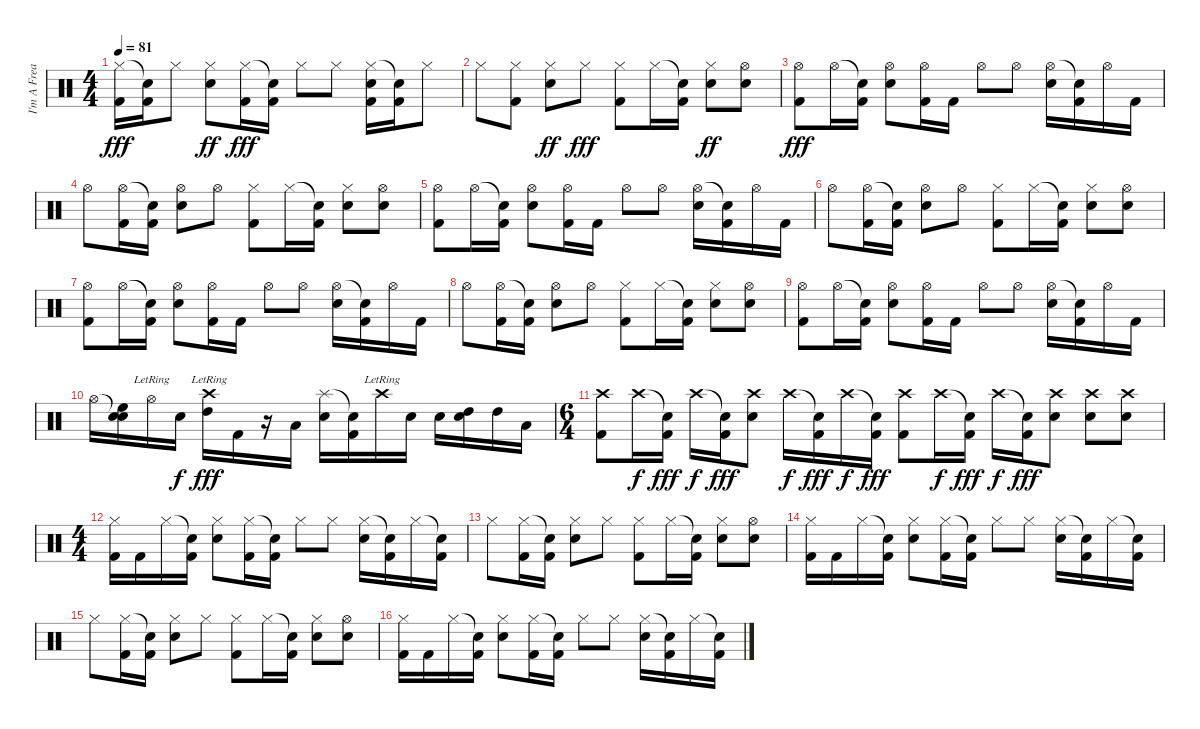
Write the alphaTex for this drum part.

\track ("I'm A Freak" "I'm A Frea") {instrument percussion}
\staff {score}
\articulation defaults
\ts (4 4)
\tempo 81
\clef neutral
\ks c
("Hi-Hat (closed)" "Kick (hit) 2").16{dy fff} ("Snare (hit)"{t} "Kick (hit) 2").16 "Hi-Hat (closed)".8 ("Hi-Hat (closed)" "Snare (hit) 2").8{dy ff} ("Hi-Hat (closed)" "Kick (hit) 2").16{dy fff} ("Snare (hit)"{t} "Kick (hit) 2").16 "Hi-Hat (closed)".8 "Hi-Hat (closed)".8 ("Hi-Hat (closed)" "Snare (hit) 2" "Kick (hit) 2").16 ("Snare (hit)"{t} "Kick (hit) 2").16 "Hi-Hat (closed)".8 |
"Hi-Hat (closed)".8 ("Hi-Hat (closed)" "Kick (hit) 2").8 ("Hi-Hat (closed)" "Snare (hit) 2").8{dy ff} "Hi-Hat (closed)".8{dy fff} ("Hi-Hat (closed)" "Kick (hit) 2").8 "Hi-Hat (closed)".16 ("Snare (hit)"{t} "Kick (hit) 2").16 ("Hi-Hat (closed)" "Snare (hit) 2").8{dy ff} ("Hi-Hat (open)" "Snare (hit) 2").8 |
("Hi-Hat (open)" "Kick (hit) 2").8{dy fff} "Hi-Hat (open)".16 ("Snare (hit)"{t} "Kick (hit) 2").16 ("Hi-Hat (open)" "Snare (hit) 2").8 ("Hi-Hat (open)" "Kick (hit) 2").16 "Kick (hit) 2".16 "Hi-Hat (open)".8 "Hi-Hat (open)".8 ("Hi-Hat (open)" "Snare (hit) 2").16 ("Snare (hit)"{t} "Kick (hit) 2").16 "Hi-Hat (open)".16 "Kick (hit) 2".16 |
"Hi-Hat (open)".8 ("Hi-Hat (open)" "Kick (hit) 2").16 ("Snare (hit)"{t} "Kick (hit) 2").16 ("Hi-Hat (open)" "Snare (hit) 2").8 "Hi-Hat (open)".8 ("Hi-Hat (closed)" "Kick (hit) 2").8 "Hi-Hat (closed)".16 ("Snare (hit)"{t} "Kick (hit) 2").16 ("Hi-Hat (closed)" "Snare (hit) 2").8 ("Hi-Hat (open)" "Snare (hit) 2").8 |
("Hi-Hat (open)" "Kick (hit) 2").8 "Hi-Hat (open)".16 ("Snare (hit)"{t} "Kick (hit) 2").16 ("Hi-Hat (open)" "Snare (hit) 2").8 ("Hi-Hat (open)" "Kick (hit) 2").16 "Kick (hit) 2".16 "Hi-Hat (open)".8 "Hi-Hat (open)".8 ("Hi-Hat (open)" "Snare (hit) 2").16 ("Snare (hit)"{t} "Kick (hit) 2").16 "Hi-Hat (open)".16 "Kick (hit) 2".16 |
"Hi-Hat (open)".8 ("Hi-Hat (open)" "Kick (hit) 2").16 ("Snare (hit)"{t} "Kick (hit) 2").16 ("Hi-Hat (open)" "Snare (hit) 2").8 "Hi-Hat (open)".8 ("Hi-Hat (closed)" "Kick (hit) 2").8 "Hi-Hat (closed)".16 ("Snare (hit)"{t} "Kick (hit) 2").16 ("Hi-Hat (closed)" "Snare (hit) 2").8 ("Hi-Hat (open)" "Snare (hit) 2").8 |
("Hi-Hat (open)" "Kick (hit) 2").8 "Hi-Hat (open)".16 ("Snare (hit)"{t} "Kick (hit) 2").16 ("Hi-Hat (open)" "Snare (hit) 2").8 ("Hi-Hat (open)" "Kick (hit) 2").16 "Kick (hit) 2".16 "Hi-Hat (open)".8 "Hi-Hat (open)".8 ("Hi-Hat (open)" "Snare (hit) 2").16 ("Snare (hit)"{t} "Kick (hit) 2").16 "Hi-Hat (open)".16 "Kick (hit) 2".16 |
"Hi-Hat (open)".8 ("Hi-Hat (open)" "Kick (hit) 2").16 ("Snare (hit)"{t} "Kick (hit) 2").16 ("Hi-Hat (open)" "Snare (hit) 2").8 "Hi-Hat (open)".8 ("Hi-Hat (closed)" "Kick (hit) 2").8 "Hi-Hat (closed)".16 ("Snare (hit)"{t} "Kick (hit) 2").16 ("Hi-Hat (closed)" "Snare (hit) 2").8 ("Hi-Hat (open)" "Snare (hit) 2").8 |
("Hi-Hat (open)" "Kick (hit) 2").8 "Hi-Hat (open)".16 ("Snare (hit)"{t} "Kick (hit) 2").16 ("Hi-Hat (open)" "Snare (hit) 2").8 ("Hi-Hat (open)" "Kick (hit) 2").16 "Kick (hit) 2".16 "Hi-Hat (open)".8 "Hi-Hat (open)".8 ("Hi-Hat (open)" "Snare (hit) 2").16 ("Snare (hit)"{t} "Kick (hit) 2").16 "Hi-Hat (open)".16 "Kick (hit) 2".16 |
"Hi-Hat (open)".16 ("Snare (hit)"{t} "Snare (hit) 2" "High Floor Tom (hit)").16 "Hi-Hat (open)"{lr}.16 "Snare (hit) 2".16{dy f} ("Crash high (hit)"{lr} "High Tom (hit)").16{dy fff} "Kick (hit) 2".16 r.16 "Low Tom (hit)".16 ("Splash (hit)" "Snare (hit) 2").16 ("Snare (hit)"{t} "Kick (hit) 2").16 "Crash high (hit)"{lr}.16 "Snare (hit) 2".16 "Snare (hit) 2".16 ("Snare (hit) 2" "High Tom (hit)").16 "High Tom (hit)".16 "Low Tom (hit)".16 |
\ts (6 4)
("Crash high (hit)" "Kick (hit) 2").8 "Crash high (hit)".16{dy f} ("Snare (hit)"{t} "Kick (hit) 2").16{dy fff} "Crash high (hit)".16{dy f} ("Snare (hit)"{t} "Kick (hit) 2").16{dy fff} ("Crash high (hit)" "Snare (hit) 2").8 "Crash high (hit)".16{dy f} ("Snare (hit)"{t} "Kick (hit) 2").16{dy fff} "Crash high (hit)".16{dy f} ("Snare (hit)"{t} "Kick (hit) 2").16{dy fff} ("Crash high (hit)" "Kick (hit) 2").8 "Crash high (hit)".16{dy f} ("Snare (hit)"{t} "Kick (hit) 2").16{dy fff} "Crash high (hit)".16{dy f} ("Snare (hit)"{t} "Kick (hit) 2").16{dy fff} ("Crash high (hit)" "Snare (hit) 2").8 ("Crash high (hit)" "Snare (hit) 2").8 ("Crash high (hit)" "Snare (hit) 2").8 |
\ts (4 4)
("Hi-Hat (closed)" "Kick (hit) 2").16 "Kick (hit) 2".16 "Hi-Hat (closed)".16 ("Snare (hit)"{t} "Kick (hit) 2").16 ("Hi-Hat (closed)" "Snare (hit) 2").8 ("Hi-Hat (closed)" "Kick (hit) 2").16 ("Snare (hit)"{t} "Kick (hit) 2").16 "Hi-Hat (closed)".8 "Hi-Hat (closed)".8 ("Hi-Hat (closed)" "Snare (hit) 2").16 ("Snare (hit)"{t} "Kick (hit) 2").16 "Hi-Hat (closed)".16 ("Snare (hit)"{t} "Kick (hit) 2").16 |
"Hi-Hat (closed)".8 ("Hi-Hat (closed)" "Kick (hit) 2").16 ("Snare (hit)"{t} "Kick (hit) 2").16 ("Hi-Hat (closed)" "Snare (hit) 2").8 "Hi-Hat (closed)".8 ("Hi-Hat (closed)" "Kick (hit) 2").8 "Hi-Hat (closed)".16 ("Snare (hit)"{t} "Kick (hit) 2").16 ("Hi-Hat (closed)" "Snare (hit) 2").8 ("Hi-Hat (open)" "Snare (hit) 2").8 |
("Hi-Hat (closed)" "Kick (hit) 2").16 "Kick (hit) 2".16 "Hi-Hat (closed)".16 ("Snare (hit)"{t} "Kick (hit) 2").16 ("Hi-Hat (closed)" "Snare (hit) 2").8 ("Hi-Hat (closed)" "Kick (hit) 2").16 ("Snare (hit)"{t} "Kick (hit) 2").16 "Hi-Hat (closed)".8 "Hi-Hat (closed)".8 ("Hi-Hat (closed)" "Snare (hit) 2").16 ("Snare (hit)"{t} "Kick (hit) 2").16 "Hi-Hat (closed)".16 ("Snare (hit)"{t} "Kick (hit) 2").16 |
"Hi-Hat (closed)".8 ("Hi-Hat (closed)" "Kick (hit) 2").16 ("Snare (hit)"{t} "Kick (hit) 2").16 ("Hi-Hat (closed)" "Snare (hit) 2").8 "Hi-Hat (closed)".8 ("Hi-Hat (closed)" "Kick (hit) 2").8 "Hi-Hat (closed)".16 ("Snare (hit)"{t} "Kick (hit) 2").16 ("Hi-Hat (closed)" "Snare (hit) 2").8 ("Hi-Hat (open)" "Snare (hit) 2").8 |
("Hi-Hat (closed)" "Kick (hit) 2").16 "Kick (hit) 2".16 "Hi-Hat (closed)".16 ("Snare (hit)"{t} "Kick (hit) 2").16 ("Hi-Hat (closed)" "Snare (hit) 2").8 ("Hi-Hat (closed)" "Kick (hit) 2").16 ("Snare (hit)"{t} "Kick (hit) 2").16 "Hi-Hat (closed)".8 "Hi-Hat (closed)".8 ("Hi-Hat (closed)" "Snare (hit) 2").16 ("Snare (hit)"{t} "Kick (hit) 2").16 "Hi-Hat (closed)".16 ("Snare (hit)"{t} "Kick (hit) 2").16
